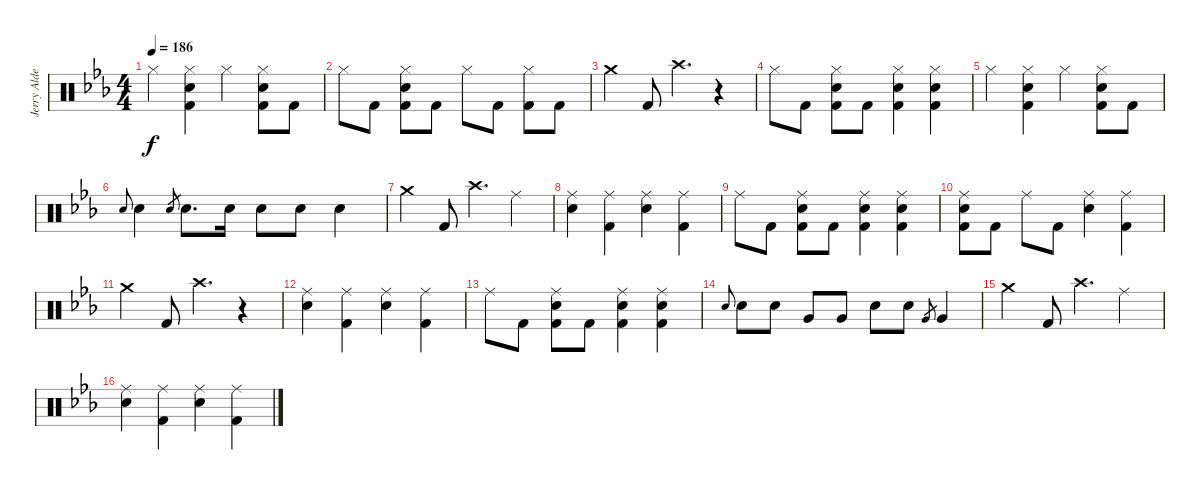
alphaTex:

\track ("Jerry Alder - Drums" "Jerry Alde") {instrument percussion}
\staff {score}
\articulation defaults
\ts (4 4)
\tempo 186
\clef neutral
\ks eb "Hi-Hat (closed)".4{dy f}
("Hi-Hat (closed)" "Snare (hit) 2" "Kick (hit) 2").4 "Hi-Hat (closed)".4 ("Hi-Hat (closed)" "Snare (hit) 2" "Kick (hit) 2").8 "Kick (hit) 2".8 |
"Hi-Hat (closed)".8 "Kick (hit) 2".8 ("Hi-Hat (closed)" "Snare (hit) 2" "Kick (hit) 2").8 "Kick (hit) 2".8 "Hi-Hat (closed)".8 "Kick (hit) 2".8 ("Hi-Hat (closed)" "Kick (hit) 2").8 "Kick (hit) 2".8 |
"Crash medium (hit)".4 "Kick (hit) 2".8 "Crash high (hit)".4{d} r.4 |
"Hi-Hat (closed)".8 "Kick (hit) 2".8 ("Hi-Hat (closed)" "Snare (hit) 2" "Kick (hit) 2").8 "Kick (hit) 2".8 ("Hi-Hat (closed)" "Snare (hit) 2" "Kick (hit) 2").4 ("Hi-Hat (closed)" "Snare (hit) 2" "Kick (hit) 2").4 |
"Hi-Hat (closed)".4 ("Hi-Hat (closed)" "Snare (hit) 2" "Kick (hit) 2").4 "Hi-Hat (closed)".4 ("Hi-Hat (closed)" "Snare (hit) 2" "Kick (hit) 2").8 "Kick (hit) 2".8 |
"Snare (hit) 2".8{gr onbeat} "Snare (hit) 2".4 "Snare (hit) 2".8{gr} "Snare (hit) 2".8{d} "Snare (hit) 2".16 "Snare (hit) 2".8 "Snare (hit) 2".8 "Snare (hit) 2".4 |
"Crash medium (hit)".4 "Kick (hit) 2".8 "Crash high (hit)".4{d} "Ride (middle)".4 |
("Ride (middle)" "Snare (hit) 2").4 ("Ride (middle)" "Kick (hit) 2").4 ("Ride (middle)" "Snare (hit) 2").4 ("Ride (middle)" "Kick (hit) 2").4 |
"Ride (middle)".8 "Kick (hit) 2".8 ("Ride (middle)" "Snare (hit) 2" "Kick (hit) 2").8 "Kick (hit) 2".8 ("Ride (middle)" "Snare (hit) 2" "Kick (hit) 2").4 ("Ride (middle)" "Snare (hit) 2" "Kick (hit) 2").4 |
("Ride (middle)" "Snare (hit) 2" "Kick (hit) 2").8 "Kick (hit) 2".8 "Ride (middle)".8 "Kick (hit) 2".8 ("Ride (middle)" "Snare (hit) 2").4 ("Ride (middle)" "Kick (hit) 2").4 |
"Crash medium (hit)".4 "Kick (hit) 2".8 "Crash high (hit)".4{d} r.4 |
("Ride (middle)" "Snare (hit) 2").4 ("Ride (middle)" "Kick (hit) 2").4 ("Ride (middle)" "Snare (hit) 2").4 ("Ride (middle)" "Kick (hit) 2").4 |
"Ride (middle)".8 "Kick (hit) 2".8 ("Ride (middle)" "Snare (hit) 2" "Kick (hit) 2").8 "Kick (hit) 2".8 ("Ride (middle)" "Snare (hit) 2" "Kick (hit) 2").4 ("Ride (middle)" "Snare (hit) 2" "Kick (hit) 2").4 |
"Snare (hit) 2".8{gr onbeat} "Snare (hit) 2".8 "Snare (hit) 2".8 "Very Low Tom (hit)".8 "Very Low Tom (hit)".8 "Snare (hit) 2".8 "Snare (hit) 2".8 "Very Low Tom (hit)".8{gr} "Very Low Tom (hit)".4 |
"Crash medium (hit)".4 "Kick (hit) 2".8 "Crash high (hit)".4{d} "Ride (middle)".4 |
("Ride (middle)" "Snare (hit) 2").4 ("Ride (middle)" "Kick (hit) 2").4 ("Ride (middle)" "Snare (hit) 2").4 ("Ride (middle)" "Kick (hit) 2").4
